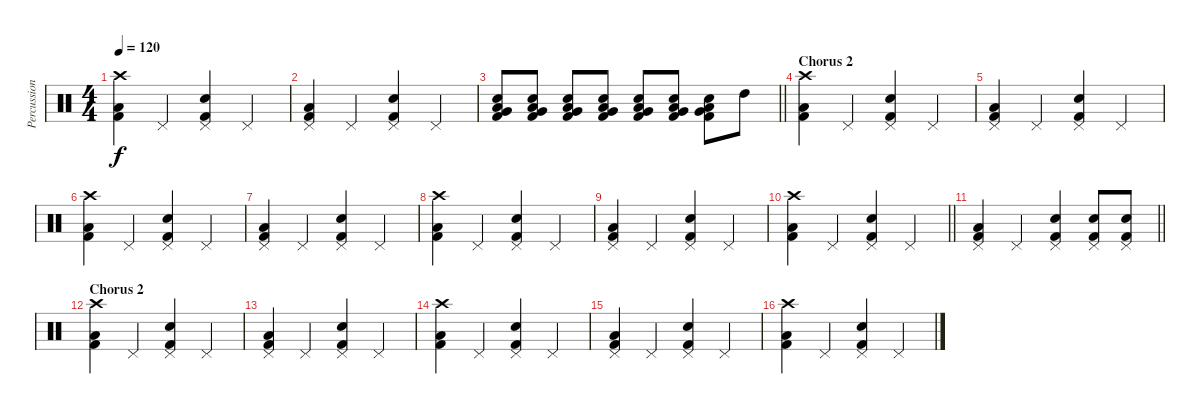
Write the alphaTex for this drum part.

\track ("Percussion" "Percussion") {instrument percussion}
\staff {score}
\articulation defaults
\ts (4 4)
\tempo 120
\clef neutral
\ks c
("Crash high (hit)" "Low Floor Tom (hit)" "Kick (hit) 2").4{dy f} "Pedal Hi-Hat (hit)".4 ("Pedal Hi-Hat (hit)" "Snare (hit) 2" "Kick (hit) 2").4 "Pedal Hi-Hat (hit)".4 |
("Pedal Hi-Hat (hit)" "Low Floor Tom (hit)" "Kick (hit) 2").4 "Pedal Hi-Hat (hit)".4 ("Pedal Hi-Hat (hit)" "Snare (hit) 2" "Kick (hit) 2").4 "Pedal Hi-Hat (hit)".4 |
\barLineRight lightlight
("Low Floor Tom (hit)" "Very Low Tom (hit)" "Kick (hit) 2" "Snare (hit) 2").8 ("Low Floor Tom (hit)" "Very Low Tom (hit)" "Kick (hit) 2" "Snare (hit) 2").8 ("Low Floor Tom (hit)" "Very Low Tom (hit)" "Kick (hit) 2" "Snare (hit) 2").8 ("Low Floor Tom (hit)" "Very Low Tom (hit)" "Kick (hit) 2" "Snare (hit) 2").8 ("Low Floor Tom (hit)" "Very Low Tom (hit)" "Kick (hit) 2" "Snare (hit) 2").8 ("Low Floor Tom (hit)" "Very Low Tom (hit)" "Kick (hit) 2" "Snare (hit) 2").8 ("Low Floor Tom (hit)" "Very Low Tom (hit)" "Kick (hit) 2" "Snare (hit) 2").8 "High Tom (hit)".8 |
\section ("" "Chorus 2")
("Crash high (hit)" "Low Floor Tom (hit)" "Kick (hit) 2").4 "Pedal Hi-Hat (hit)".4 ("Pedal Hi-Hat (hit)" "Snare (hit) 2" "Kick (hit) 2").4 "Pedal Hi-Hat (hit)".4 |
("Pedal Hi-Hat (hit)" "Low Floor Tom (hit)" "Kick (hit) 2").4 "Pedal Hi-Hat (hit)".4 ("Pedal Hi-Hat (hit)" "Snare (hit) 2" "Kick (hit) 2").4 "Pedal Hi-Hat (hit)".4 |
("Crash high (hit)" "Low Floor Tom (hit)" "Kick (hit) 2").4 "Pedal Hi-Hat (hit)".4 ("Pedal Hi-Hat (hit)" "Snare (hit) 2" "Kick (hit) 2").4 "Pedal Hi-Hat (hit)".4 |
("Pedal Hi-Hat (hit)" "Low Floor Tom (hit)" "Kick (hit) 2").4 "Pedal Hi-Hat (hit)".4 ("Pedal Hi-Hat (hit)" "Snare (hit) 2" "Kick (hit) 2").4 "Pedal Hi-Hat (hit)".4 |
("Crash high (hit)" "Low Floor Tom (hit)" "Kick (hit) 2").4 "Pedal Hi-Hat (hit)".4 ("Pedal Hi-Hat (hit)" "Snare (hit) 2" "Kick (hit) 2").4 "Pedal Hi-Hat (hit)".4 |
("Pedal Hi-Hat (hit)" "Low Floor Tom (hit)" "Kick (hit) 2").4 "Pedal Hi-Hat (hit)".4 ("Pedal Hi-Hat (hit)" "Snare (hit) 2" "Kick (hit) 2").4 "Pedal Hi-Hat (hit)".4 |
\barLineRight lightlight
("Crash high (hit)" "Low Floor Tom (hit)" "Kick (hit) 2").4 "Pedal Hi-Hat (hit)".4 ("Pedal Hi-Hat (hit)" "Snare (hit) 2" "Kick (hit) 2").4 "Pedal Hi-Hat (hit)".4 |
\barLineRight lightlight
("Pedal Hi-Hat (hit)" "Low Floor Tom (hit)" "Kick (hit) 2").4 "Pedal Hi-Hat (hit)".4 ("Pedal Hi-Hat (hit)" "Snare (hit) 2" "Kick (hit) 2").4 ("Pedal Hi-Hat (hit)" "Snare (hit) 2" "Kick (hit) 2").8 ("Pedal Hi-Hat (hit)" "Snare (hit) 2" "Kick (hit) 2").8 |
\section ("" "Chorus 2")
("Crash high (hit)" "Low Floor Tom (hit)" "Kick (hit) 2").4 "Pedal Hi-Hat (hit)".4 ("Pedal Hi-Hat (hit)" "Snare (hit) 2" "Kick (hit) 2").4 "Pedal Hi-Hat (hit)".4 |
("Pedal Hi-Hat (hit)" "Low Floor Tom (hit)" "Kick (hit) 2").4 "Pedal Hi-Hat (hit)".4 ("Pedal Hi-Hat (hit)" "Snare (hit) 2" "Kick (hit) 2").4 "Pedal Hi-Hat (hit)".4 |
("Crash high (hit)" "Low Floor Tom (hit)" "Kick (hit) 2").4 "Pedal Hi-Hat (hit)".4 ("Pedal Hi-Hat (hit)" "Snare (hit) 2" "Kick (hit) 2").4 "Pedal Hi-Hat (hit)".4 |
("Pedal Hi-Hat (hit)" "Low Floor Tom (hit)" "Kick (hit) 2").4 "Pedal Hi-Hat (hit)".4 ("Pedal Hi-Hat (hit)" "Snare (hit) 2" "Kick (hit) 2").4 "Pedal Hi-Hat (hit)".4 |
("Crash high (hit)" "Low Floor Tom (hit)" "Kick (hit) 2").4 "Pedal Hi-Hat (hit)".4 ("Pedal Hi-Hat (hit)" "Snare (hit) 2" "Kick (hit) 2").4 "Pedal Hi-Hat (hit)".4
